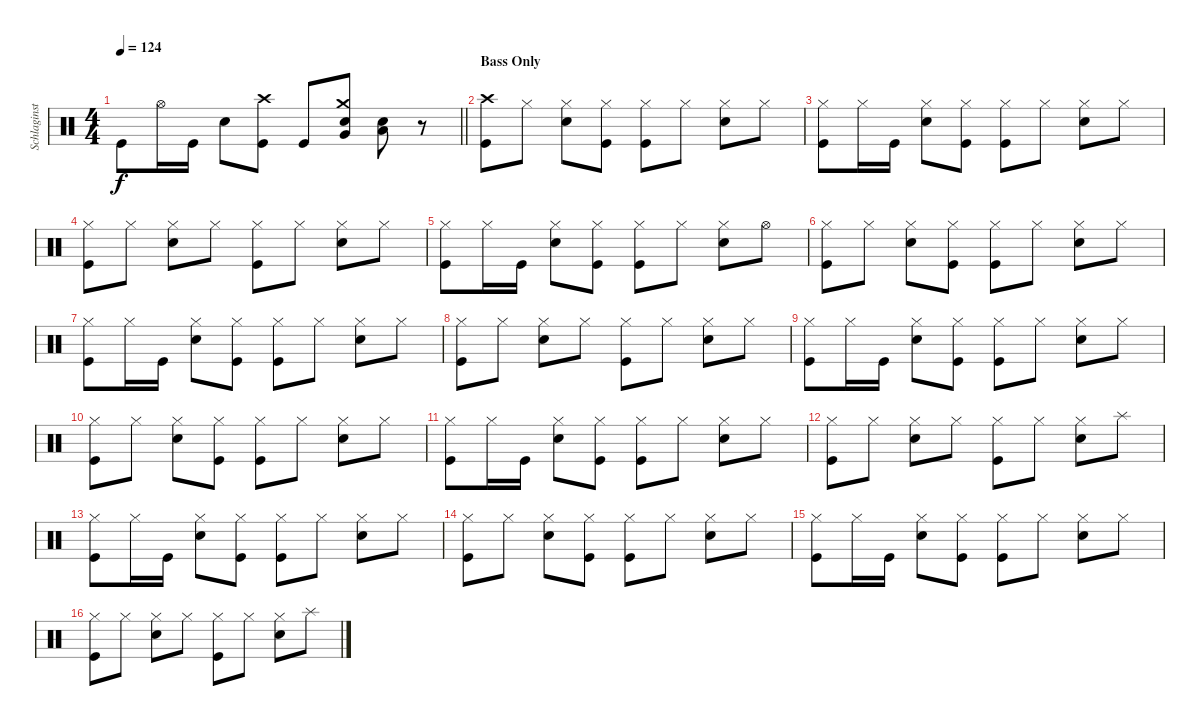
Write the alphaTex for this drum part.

\track ("Schlaginstrumente - Auswahl" "Schlaginst") {instrument percussion}
\staff {score}
\articulation defaults
\ts (4 4)
\tempo 124
\clef neutral
\barLineRight lightlight
\ks c "Kick (hit)".8{dy f} "Hi-Hat (open)".16 "Kick (hit)".16 "Snare (hit) 2".8
("Crash high (hit)" "Kick (hit)").8 "Kick (hit)".8 ("Crash medium (hit)" "Very Low Tom (hit)" "Snare (hit) 2").8 ("Low Floor Tom (hit)" "Snare (hit) 2").8 r.8 |
\section ("" "Bass Only")
("Crash high (hit)" "Kick (hit)").8 "Hi-Hat (closed)".8 ("Hi-Hat (closed)" "Snare (hit) 2").8 ("Hi-Hat (closed)" "Kick (hit)").8 ("Hi-Hat (closed)" "Kick (hit)").8 "Hi-Hat (closed)".8 ("Hi-Hat (closed)" "Snare (hit) 2").8 "Hi-Hat (closed)".8 |
("Hi-Hat (closed)" "Kick (hit)").8 "Hi-Hat (closed)".16 "Kick (hit)".16 ("Hi-Hat (closed)" "Snare (hit) 2").8 ("Hi-Hat (closed)" "Kick (hit)").8 ("Hi-Hat (closed)" "Kick (hit)").8 "Hi-Hat (closed)".8 ("Hi-Hat (closed)" "Snare (hit) 2").8 "Hi-Hat (closed)".8 |
("Hi-Hat (closed)" "Kick (hit)").8 "Hi-Hat (closed)".8 ("Hi-Hat (closed)" "Snare (hit) 2").8 "Hi-Hat (closed)".8 ("Hi-Hat (closed)" "Kick (hit)").8 "Hi-Hat (closed)".8 ("Hi-Hat (closed)" "Snare (hit) 2").8 "Hi-Hat (closed)".8 |
("Hi-Hat (closed)" "Kick (hit)").8 "Hi-Hat (closed)".16 "Kick (hit)".16 ("Hi-Hat (closed)" "Snare (hit) 2").8 ("Hi-Hat (closed)" "Kick (hit)").8 ("Hi-Hat (closed)" "Kick (hit)").8 "Hi-Hat (closed)".8 ("Hi-Hat (closed)" "Snare (hit) 2").8 "Hi-Hat (open)".8 |
("Hi-Hat (closed)" "Kick (hit)").8 "Hi-Hat (closed)".8 ("Hi-Hat (closed)" "Snare (hit) 2").8 ("Hi-Hat (closed)" "Kick (hit)").8 ("Hi-Hat (closed)" "Kick (hit)").8 "Hi-Hat (closed)".8 ("Hi-Hat (closed)" "Snare (hit) 2").8 "Hi-Hat (closed)".8 |
("Hi-Hat (closed)" "Kick (hit)").8 "Hi-Hat (closed)".16 "Kick (hit)".16 ("Hi-Hat (closed)" "Snare (hit) 2").8 ("Hi-Hat (closed)" "Kick (hit)").8 ("Hi-Hat (closed)" "Kick (hit)").8 "Hi-Hat (closed)".8 ("Hi-Hat (closed)" "Snare (hit) 2").8 "Hi-Hat (closed)".8 |
("Hi-Hat (closed)" "Kick (hit)").8 "Hi-Hat (closed)".8 ("Hi-Hat (closed)" "Snare (hit) 2").8 "Hi-Hat (closed)".8 ("Hi-Hat (closed)" "Kick (hit)").8 "Hi-Hat (closed)".8 ("Hi-Hat (closed)" "Snare (hit) 2").8 "Hi-Hat (closed)".8 |
("Hi-Hat (closed)" "Kick (hit)").8 "Hi-Hat (closed)".16 "Kick (hit)".16 ("Hi-Hat (closed)" "Snare (hit) 2").8 ("Hi-Hat (closed)" "Kick (hit)").8 ("Hi-Hat (closed)" "Kick (hit)").8 "Hi-Hat (closed)".8 ("Hi-Hat (closed)" "Snare (hit) 2").8 "Hi-Hat (closed)".8 |
("Hi-Hat (closed)" "Kick (hit)").8 "Hi-Hat (closed)".8 ("Hi-Hat (closed)" "Snare (hit) 2").8 ("Hi-Hat (closed)" "Kick (hit)").8 ("Hi-Hat (closed)" "Kick (hit)").8 "Hi-Hat (closed)".8 ("Hi-Hat (closed)" "Snare (hit) 2").8 "Hi-Hat (closed)".8 |
("Hi-Hat (closed)" "Kick (hit)").8 "Hi-Hat (closed)".16 "Kick (hit)".16 ("Hi-Hat (closed)" "Snare (hit) 2").8 ("Hi-Hat (closed)" "Kick (hit)").8 ("Hi-Hat (closed)" "Kick (hit)").8 "Hi-Hat (closed)".8 ("Hi-Hat (closed)" "Snare (hit) 2").8 "Hi-Hat (closed)".8 |
("Hi-Hat (closed)" "Kick (hit)").8 "Hi-Hat (closed)".8 ("Hi-Hat (closed)" "Snare (hit) 2").8 "Hi-Hat (closed)".8 ("Hi-Hat (closed)" "Kick (hit)").8 "Hi-Hat (closed)".8 ("Hi-Hat (closed)" "Snare (hit) 2").8 "Splash (hit)".8 |
("Hi-Hat (closed)" "Kick (hit)").8 "Hi-Hat (closed)".16 "Kick (hit)".16 ("Hi-Hat (closed)" "Snare (hit) 2").8 ("Hi-Hat (closed)" "Kick (hit)").8 ("Hi-Hat (closed)" "Kick (hit)").8 "Hi-Hat (closed)".8 ("Hi-Hat (closed)" "Snare (hit) 2").8 "Hi-Hat (closed)".8 |
("Hi-Hat (closed)" "Kick (hit)").8 "Hi-Hat (closed)".8 ("Hi-Hat (closed)" "Snare (hit) 2").8 ("Hi-Hat (closed)" "Kick (hit)").8 ("Hi-Hat (closed)" "Kick (hit)").8 "Hi-Hat (closed)".8 ("Hi-Hat (closed)" "Snare (hit) 2").8 "Hi-Hat (closed)".8 |
("Hi-Hat (closed)" "Kick (hit)").8 "Hi-Hat (closed)".16 "Kick (hit)".16 ("Hi-Hat (closed)" "Snare (hit) 2").8 ("Hi-Hat (closed)" "Kick (hit)").8 ("Hi-Hat (closed)" "Kick (hit)").8 "Hi-Hat (closed)".8 ("Hi-Hat (closed)" "Snare (hit) 2").8 "Hi-Hat (closed)".8 |
("Hi-Hat (closed)" "Kick (hit)").8 "Hi-Hat (closed)".8 ("Hi-Hat (closed)" "Snare (hit) 2").8 "Hi-Hat (closed)".8 ("Hi-Hat (closed)" "Kick (hit)").8 "Hi-Hat (closed)".8 ("Hi-Hat (closed)" "Snare (hit) 2").8 "Splash (hit)".8
